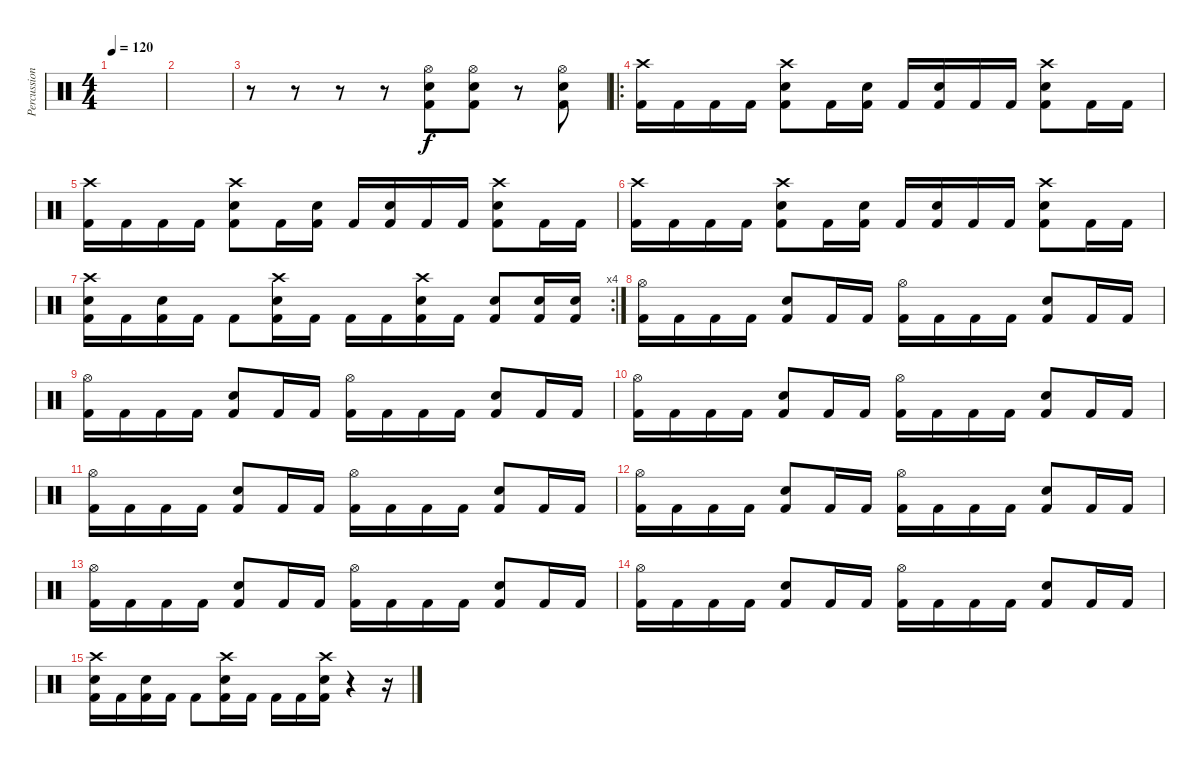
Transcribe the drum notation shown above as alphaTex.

\track ("Percussion - Ryan Vikedal" "Percussion") {instrument percussion}
\staff {score}
\articulation defaults
\ts (4 4)
\tempo 120
\clef neutral
\ks c
|
|
r.8 r.8 r.8 r.8 ("Hi-Hat (open)" "Snare (hit) 2" "Kick (hit) 2").8 ("Hi-Hat (open)" "Snare (hit) 2" "Kick (hit) 2").8 r.8 ("Hi-Hat (open)" "Snare (hit) 2" "Kick (hit) 2").8 |
\ro
("Crash high (hit)" "Kick (hit) 2").16 "Kick (hit) 2".16 "Kick (hit) 2".16 "Kick (hit) 2".16 ("Crash high (hit)" "Snare (hit) 2" "Kick (hit) 2").8 "Kick (hit) 2".16 ("Snare (hit) 2" "Kick (hit) 2").16 "Kick (hit) 2".16 ("Snare (hit) 2" "Kick (hit) 2").16 "Kick (hit) 2".16 "Kick (hit) 2".16 ("Crash high (hit)" "Snare (hit) 2" "Kick (hit) 2").8 "Kick (hit) 2".16 "Kick (hit) 2".16 |
("Crash high (hit)" "Kick (hit) 2").16 "Kick (hit) 2".16 "Kick (hit) 2".16 "Kick (hit) 2".16 ("Crash high (hit)" "Snare (hit) 2" "Kick (hit) 2").8 "Kick (hit) 2".16 ("Snare (hit) 2" "Kick (hit) 2").16 "Kick (hit) 2".16 ("Snare (hit) 2" "Kick (hit) 2").16 "Kick (hit) 2".16 "Kick (hit) 2".16 ("Crash high (hit)" "Snare (hit) 2" "Kick (hit) 2").8 "Kick (hit) 2".16 "Kick (hit) 2".16 |
("Crash high (hit)" "Kick (hit) 2").16 "Kick (hit) 2".16 "Kick (hit) 2".16 "Kick (hit) 2".16 ("Crash high (hit)" "Snare (hit) 2" "Kick (hit) 2").8 "Kick (hit) 2".16 ("Snare (hit) 2" "Kick (hit) 2").16 "Kick (hit) 2".16 ("Snare (hit) 2" "Kick (hit) 2").16 "Kick (hit) 2".16 "Kick (hit) 2".16 ("Crash high (hit)" "Snare (hit) 2" "Kick (hit) 2").8 "Kick (hit) 2".16 "Kick (hit) 2".16 |
\rc 4
("Crash high (hit)" "Snare (hit) 2" "Kick (hit) 2").16 "Kick (hit) 2".16 ("Snare (hit) 2" "Kick (hit) 2").16 "Kick (hit) 2".16 "Kick (hit) 2".8 ("Crash high (hit)" "Snare (hit) 2" "Kick (hit) 2").16 "Kick (hit) 2".16 "Kick (hit) 2".16 "Kick (hit) 2".16 ("Crash high (hit)" "Snare (hit) 2" "Kick (hit) 2").16 "Kick (hit) 2".16 ("Snare (hit) 2" "Kick (hit) 2").8 ("Snare (hit) 2" "Kick (hit) 2").16 ("Snare (hit) 2" "Kick (hit) 2").16 |
("Hi-Hat (open)" "Kick (hit) 2").16 "Kick (hit) 2".16 "Kick (hit) 2".16 "Kick (hit) 2".16 ("Snare (hit) 2" "Kick (hit) 2").8 "Kick (hit) 2".16 "Kick (hit) 2".16 ("Hi-Hat (open)" "Kick (hit) 2").16 "Kick (hit) 2".16 "Kick (hit) 2".16 "Kick (hit) 2".16 ("Snare (hit) 2" "Kick (hit) 2").8 "Kick (hit) 2".16 "Kick (hit) 2".16 |
("Hi-Hat (open)" "Kick (hit) 2").16 "Kick (hit) 2".16 "Kick (hit) 2".16 "Kick (hit) 2".16 ("Snare (hit) 2" "Kick (hit) 2").8 "Kick (hit) 2".16 "Kick (hit) 2".16 ("Hi-Hat (open)" "Kick (hit) 2").16 "Kick (hit) 2".16 "Kick (hit) 2".16 "Kick (hit) 2".16 ("Snare (hit) 2" "Kick (hit) 2").8 "Kick (hit) 2".16 "Kick (hit) 2".16 |
("Hi-Hat (open)" "Kick (hit) 2").16 "Kick (hit) 2".16 "Kick (hit) 2".16 "Kick (hit) 2".16 ("Snare (hit) 2" "Kick (hit) 2").8 "Kick (hit) 2".16 "Kick (hit) 2".16 ("Hi-Hat (open)" "Kick (hit) 2").16 "Kick (hit) 2".16 "Kick (hit) 2".16 "Kick (hit) 2".16 ("Snare (hit) 2" "Kick (hit) 2").8 "Kick (hit) 2".16 "Kick (hit) 2".16 |
("Hi-Hat (open)" "Kick (hit) 2").16 "Kick (hit) 2".16 "Kick (hit) 2".16 "Kick (hit) 2".16 ("Snare (hit) 2" "Kick (hit) 2").8 "Kick (hit) 2".16 "Kick (hit) 2".16 ("Hi-Hat (open)" "Kick (hit) 2").16 "Kick (hit) 2".16 "Kick (hit) 2".16 "Kick (hit) 2".16 ("Snare (hit) 2" "Kick (hit) 2").8 "Kick (hit) 2".16 "Kick (hit) 2".16 |
("Hi-Hat (open)" "Kick (hit) 2").16 "Kick (hit) 2".16 "Kick (hit) 2".16 "Kick (hit) 2".16 ("Snare (hit) 2" "Kick (hit) 2").8 "Kick (hit) 2".16 "Kick (hit) 2".16 ("Hi-Hat (open)" "Kick (hit) 2").16 "Kick (hit) 2".16 "Kick (hit) 2".16 "Kick (hit) 2".16 ("Snare (hit) 2" "Kick (hit) 2").8 "Kick (hit) 2".16 "Kick (hit) 2".16 |
("Hi-Hat (open)" "Kick (hit) 2").16 "Kick (hit) 2".16 "Kick (hit) 2".16 "Kick (hit) 2".16 ("Snare (hit) 2" "Kick (hit) 2").8 "Kick (hit) 2".16 "Kick (hit) 2".16 ("Hi-Hat (open)" "Kick (hit) 2").16 "Kick (hit) 2".16 "Kick (hit) 2".16 "Kick (hit) 2".16 ("Snare (hit) 2" "Kick (hit) 2").8 "Kick (hit) 2".16 "Kick (hit) 2".16 |
("Hi-Hat (open)" "Kick (hit) 2").16 "Kick (hit) 2".16 "Kick (hit) 2".16 "Kick (hit) 2".16 ("Snare (hit) 2" "Kick (hit) 2").8 "Kick (hit) 2".16 "Kick (hit) 2".16 ("Hi-Hat (open)" "Kick (hit) 2").16 "Kick (hit) 2".16 "Kick (hit) 2".16 "Kick (hit) 2".16 ("Snare (hit) 2" "Kick (hit) 2").8 "Kick (hit) 2".16 "Kick (hit) 2".16 |
("Crash high (hit)" "Snare (hit) 2" "Kick (hit) 2").16 "Kick (hit) 2".16 ("Snare (hit) 2" "Kick (hit) 2").16 "Kick (hit) 2".16 "Kick (hit) 2".8 ("Crash high (hit)" "Snare (hit) 2" "Kick (hit) 2").16 "Kick (hit) 2".16 "Kick (hit) 2".16 "Kick (hit) 2".16 ("Crash high (hit)" "Snare (hit) 2" "Kick (hit) 2").16 r.4 r.16
